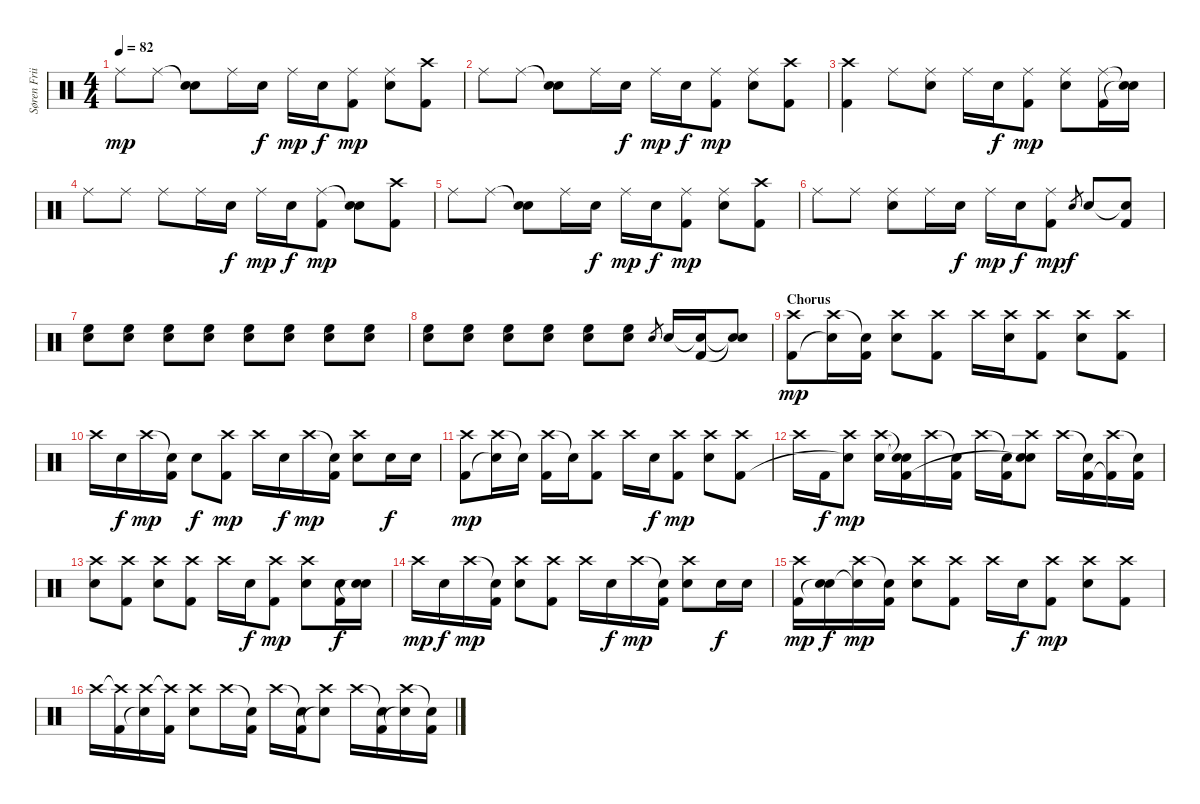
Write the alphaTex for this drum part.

\track ("Søren Friis" "Søren Frii") {instrument percussion}
\staff {score}
\articulation defaults
\ts (4 4)
\tempo 82
\clef neutral
\ks c "Ride (middle)".8{dy mp} "Ride (middle)".8
("Snare (hit)"{t} "Snare (hit) 2").8 "Ride (middle)".16 "Snare (hit) 2".16{dy f} "Ride (middle)".16{dy mp} "Snare (hit) 2".16{dy f} ("Ride (middle)" "Kick (hit) 2").8{dy mp} ("Ride (middle)" "Snare (hit) 2").8 ("Crash high (hit)" "Kick (hit) 2").8 |
"Ride (middle)".8 "Ride (middle)".8 ("Snare (hit)"{t} "Snare (hit) 2").8 "Ride (middle)".16 "Snare (hit) 2".16{dy f} "Ride (middle)".16{dy mp} "Snare (hit) 2".16{dy f} ("Ride (middle)" "Kick (hit) 2").8{dy mp} ("Ride (middle)" "Snare (hit) 2").8 ("Crash high (hit)" "Kick (hit) 2").8 |
("Crash high (hit)" "Kick (hit) 2").4 "Ride (middle)".8 ("Ride (middle)" "Snare (hit) 2").8 "Ride (middle)".16 "Snare (hit) 2".16{dy f} ("Ride (middle)" "Kick (hit) 2").8{dy mp} ("Ride (middle)" "Snare (hit) 2").8 ("Ride (middle)" "Kick (hit) 2").16 ("Snare (hit)"{t} "Snare (hit)"{t}).16 |
"Ride (middle)".8 "Ride (middle)".8 "Ride (middle)".8 "Ride (middle)".16 "Snare (hit) 2".16{dy f} "Ride (middle)".16{dy mp} "Snare (hit) 2".16{dy f} ("Ride (middle)" "Kick (hit) 2").8{dy mp} ("Snare (hit)"{t} "Snare (hit) 2").8 ("Crash high (hit)" "Kick (hit) 2").8 |
"Ride (middle)".8 "Ride (middle)".8 ("Snare (hit)"{t} "Snare (hit) 2").8 "Ride (middle)".16 "Snare (hit) 2".16{dy f} "Ride (middle)".16{dy mp} "Snare (hit) 2".16{dy f} ("Ride (middle)" "Kick (hit) 2").8{dy mp} ("Ride (middle)" "Snare (hit) 2").8 ("Crash high (hit)" "Kick (hit) 2").8 |
"Ride (middle)".8 "Ride (middle)".8 ("Ride (middle)" "Snare (hit) 2").8 "Ride (middle)".16 "Snare (hit) 2".16{dy f} "Ride (middle)".16{dy mp} "Snare (hit) 2".16{dy f} ("Ride (middle)" "Kick (hit) 2").8{dy mp} "Snare (hit) 2".8{gr dy f} "Snare (hit) 2".8 ("Snare (hit)"{t} "Kick (hit) 2").8 |
("Snare (hit) 2" "High Floor Tom (hit)").8 ("Snare (hit) 2" "High Floor Tom (hit)").8 ("Snare (hit) 2" "High Floor Tom (hit)").8 ("Snare (hit) 2" "High Floor Tom (hit)").8 ("Snare (hit) 2" "High Floor Tom (hit)").8 ("Snare (hit) 2" "High Floor Tom (hit)").8 ("Snare (hit) 2" "High Floor Tom (hit)").8 ("Snare (hit) 2" "High Floor Tom (hit)").8 |
("Snare (hit) 2" "High Floor Tom (hit)").8 ("Snare (hit) 2" "High Floor Tom (hit)").8 ("Snare (hit) 2" "High Floor Tom (hit)").8 ("Snare (hit) 2" "High Floor Tom (hit)").8 ("Snare (hit) 2" "High Floor Tom (hit)").8 ("Snare (hit) 2" "High Floor Tom (hit)").8 "Snare (hit) 2".8{gr} "Snare (hit) 2".16 ("Snare (hit)"{t} "Kick (hit) 2").16 ("Snare (hit)"{t} "Snare (hit)"{t}).8 |
\section ("" "Chorus")
("Crash high (hit)" "Kick (hit) 2").8{dy mp} ("Crash high (hit)" "Snare (hit)"{t}).16 ("Snare (hit)"{t} "Kick (hit) 2").16 ("Crash high (hit)" "Snare (hit) 2").8 ("Crash high (hit)" "Kick (hit) 2").8 "Crash high (hit)".16 ("Crash high (hit)" "Snare (hit) 2").16 ("Crash high (hit)" "Kick (hit) 2").8 ("Crash high (hit)" "Snare (hit) 2").8 ("Crash high (hit)" "Kick (hit) 2").8 |
"Crash high (hit)".16 "Snare (hit) 2".16{dy f} "Crash high (hit)".16{dy mp} ("Snare (hit)"{t} "Kick (hit) 2").16 "Snare (hit) 2".8{dy f} ("Crash high (hit)" "Kick (hit) 2").8{dy mp} "Crash high (hit)".16 "Snare (hit) 2".16{dy f} "Crash high (hit)".16{dy mp} ("Snare (hit)"{t} "Kick (hit) 2").16 ("Crash high (hit)" "Snare (hit) 2").8 "Snare (hit) 2".16{dy f} "Snare (hit) 2".16 |
("Crash high (hit)" "Kick (hit) 2").8{dy mp} ("Crash high (hit)" "Snare (hit)"{t}).16 "Snare (hit)"{t}.16 ("Crash high (hit)" "Kick (hit) 2").16 "Snare (hit)"{t}.16 ("Crash high (hit)" "Kick (hit) 2").8 "Crash high (hit)".16 "Snare (hit) 2".16{dy f} ("Crash high (hit)" "Kick (hit) 2").8{dy mp} ("Crash high (hit)" "Snare (hit) 2").8 ("Crash high (hit)" "Kick (hit) 2").8 |
"Crash high (hit)".16 "Kick (hit) 2".16{dy f} ("Crash high (hit)" "Snare (hit)"{t}).8{dy mp} ("Crash high (hit)" "Snare (hit) 2").16 ("Snare (hit)"{t} "Snare (hit)"{t} "Kick (hit) 2").16 "Crash high (hit)".16 ("Snare (hit)"{t} "Kick (hit) 2").16 "Crash high (hit)".16 ("Snare (hit)"{t} "Kick (hit) 2").16 ("Crash high (hit)" "Snare (hit) 2" "Snare (hit)"{t}).8 "Crash high (hit)".16 ("Snare (hit)"{t} "Kick (hit) 2").16 ("Crash high (hit)" "Kick (hit) 2"{t}).16 ("Snare (hit)"{t} "Kick (hit) 2").16 |
("Crash high (hit)" "Snare (hit) 2").8 ("Crash high (hit)" "Kick (hit) 2").8 ("Crash high (hit)" "Snare (hit) 2").8 ("Crash high (hit)" "Kick (hit) 2").8 "Crash high (hit)".16 "Snare (hit) 2".16{dy f} ("Crash high (hit)" "Kick (hit) 2").8{dy mp} ("Crash high (hit)" "Snare (hit) 2").8 ("Snare (hit) 2" "Kick (hit) 2").16{dy f} ("Snare (hit) 2" "Snare (hit)"{t}).16 |
"Crash high (hit)".16{dy mp} "Snare (hit) 2".16{dy f} "Crash high (hit)".16{dy mp} ("Snare (hit)"{t} "Kick (hit) 2").16 ("Crash high (hit)" "Snare (hit) 2").8 ("Crash high (hit)" "Kick (hit) 2").8 "Crash high (hit)".16 "Snare (hit) 2".16{dy f} "Crash high (hit)".16{dy mp} ("Snare (hit)"{t} "Kick (hit) 2").16 ("Crash high (hit)" "Snare (hit) 2").8 "Snare (hit) 2".16{dy f} "Snare (hit) 2".16 |
("Crash high (hit)" "Kick (hit) 2").16{dy mp} ("Snare (hit) 2" "Snare (hit)"{t}).16{dy f} ("Crash high (hit)" "Snare (hit)"{t}).16{dy mp} ("Snare (hit)"{t} "Kick (hit) 2").16 ("Crash high (hit)" "Snare (hit) 2").8 ("Crash high (hit)" "Kick (hit) 2").8 "Crash high (hit)".16 "Snare (hit) 2".16{dy f} ("Crash high (hit)" "Kick (hit) 2").8{dy mp} ("Crash high (hit)" "Snare (hit) 2").8 ("Crash high (hit)" "Kick (hit) 2").8 |
"Crash high (hit)".16 ("Crash high (hit)"{t} "Kick (hit) 2").16 ("Crash high (hit)" "Snare (hit)"{t}).16 ("Crash high (hit)"{t} "Kick (hit) 2").16 ("Crash high (hit)" "Snare (hit) 2").8 "Crash high (hit)".16 ("Snare (hit)"{t} "Kick (hit) 2").16 "Crash high (hit)".16 ("Snare (hit)"{t} "Kick (hit) 2").16 ("Crash high (hit)" "Snare (hit)"{t}).8 "Crash high (hit)".16 ("Snare (hit)"{t} "Kick (hit) 2").16 ("Crash high (hit)" "Snare (hit)"{t}).16 ("Snare (hit)"{t} "Kick (hit) 2").16
